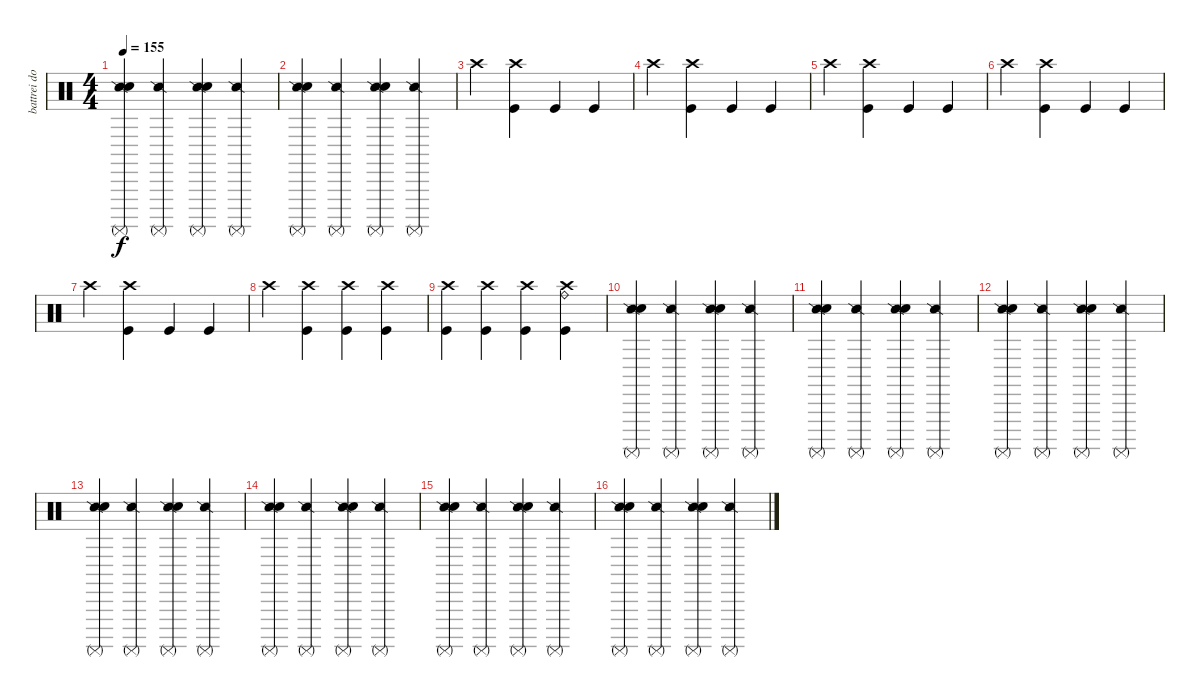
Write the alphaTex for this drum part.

\track ("battrei dom" "battrei do") {instrument percussion}
\staff {score}
\articulation defaults
\ts (4 4)
\tempo 155
\clef neutral
\ks c
("Snare (side stick) 2" "Snare (hit) 2" "Surdo (mute)").4{dy f} ("Snare (side stick) 2" "Surdo (mute)").4 ("Snare (side stick) 2" "Snare (hit) 2" "Surdo (mute)").4 ("Snare (side stick) 2" "Surdo (mute)").4 |
("Snare (side stick) 2" "Snare (hit) 2" "Surdo (mute)").4 ("Snare (side stick) 2" "Surdo (mute)").4 ("Snare (side stick) 2" "Snare (hit) 2" "Surdo (mute)").4 ("Snare (side stick) 2" "Surdo (mute)").4 |
"Crash high (hit)".4 ("Crash high (hit)" "Kick (hit)").4 "Kick (hit)".4 "Kick (hit)".4 |
"Crash high (hit)".4 ("Crash high (hit)" "Kick (hit)").4 "Kick (hit)".4 "Kick (hit)".4 |
"Crash high (hit)".4 ("Crash high (hit)" "Kick (hit)").4 "Kick (hit)".4 "Kick (hit)".4 |
"Crash high (hit)".4 ("Crash high (hit)" "Kick (hit)").4 "Kick (hit)".4 "Kick (hit)".4 |
"Crash high (hit)".4 ("Crash high (hit)" "Kick (hit)").4 "Kick (hit)".4 "Kick (hit)".4 |
"Crash high (hit)".4 ("Crash high (hit)" "Kick (hit)").4 ("Crash high (hit)" "Kick (hit)").4 ("Crash high (hit)" "Kick (hit)").4 |
("Crash high (hit)" "Kick (hit)").4 ("Crash high (hit)" "Kick (hit)").4 ("Crash high (hit)" "Kick (hit)").4 ("Crash high (hit)" "Ride (bell)" "Kick (hit)").4 |
("Snare (side stick) 2" "Snare (hit) 2" "Surdo (mute)").4 ("Snare (side stick) 2" "Surdo (mute)").4 ("Snare (side stick) 2" "Snare (hit) 2" "Surdo (mute)").4 ("Snare (side stick) 2" "Surdo (mute)").4 |
("Snare (side stick) 2" "Snare (hit) 2" "Surdo (mute)").4 ("Snare (side stick) 2" "Surdo (mute)").4 ("Snare (side stick) 2" "Snare (hit) 2" "Surdo (mute)").4 ("Snare (side stick) 2" "Surdo (mute)").4 |
("Snare (side stick) 2" "Snare (hit) 2" "Surdo (mute)").4 ("Snare (side stick) 2" "Surdo (mute)").4 ("Snare (side stick) 2" "Snare (hit) 2" "Surdo (mute)").4 ("Snare (side stick) 2" "Surdo (mute)").4 |
("Snare (side stick) 2" "Snare (hit) 2" "Surdo (mute)").4 ("Snare (side stick) 2" "Surdo (mute)").4 ("Snare (side stick) 2" "Snare (hit) 2" "Surdo (mute)").4 ("Snare (side stick) 2" "Surdo (mute)").4 |
("Snare (side stick) 2" "Snare (hit) 2" "Surdo (mute)").4 ("Snare (side stick) 2" "Surdo (mute)").4 ("Snare (side stick) 2" "Snare (hit) 2" "Surdo (mute)").4 ("Snare (side stick) 2" "Surdo (mute)").4 |
("Snare (side stick) 2" "Snare (hit) 2" "Surdo (mute)").4 ("Snare (side stick) 2" "Surdo (mute)").4 ("Snare (side stick) 2" "Snare (hit) 2" "Surdo (mute)").4 ("Snare (side stick) 2" "Surdo (mute)").4 |
("Snare (side stick) 2" "Snare (hit) 2" "Surdo (mute)").4 ("Snare (side stick) 2" "Surdo (mute)").4 ("Snare (side stick) 2" "Snare (hit) 2" "Surdo (mute)").4 ("Snare (side stick) 2" "Surdo (mute)").4
